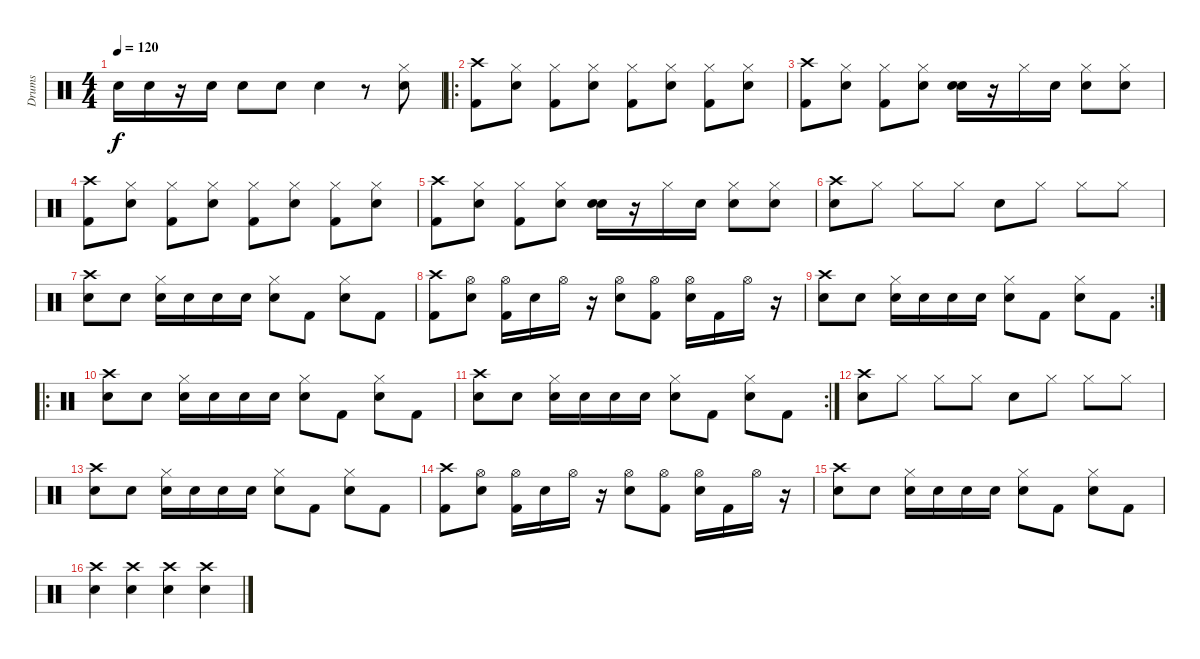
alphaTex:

\track ("Drums" "Drums") {instrument percussion}
\staff {score}
\articulation defaults
\ts (4 4)
\tempo 120
\clef neutral
\ks c "Electric Snare (hit)".16{dy f} "Electric Snare (hit)".16
r.16 "Electric Snare (hit)".16 "Electric Snare (hit)".8 "Electric Snare (hit)".8 "Electric Snare (hit)".4 r.8 ("Electric Snare (hit)" "Hi-Hat (closed)").8 |
\ro
("Crash high (hit)" "Kick (hit) 2").8 ("Hi-Hat (closed)" "Electric Snare (hit)").8 ("Hi-Hat (closed)" "Kick (hit) 2").8 ("Hi-Hat (closed)" "Electric Snare (hit)").8 ("Hi-Hat (closed)" "Kick (hit) 2").8 ("Hi-Hat (closed)" "Electric Snare (hit)").8 ("Hi-Hat (closed)" "Kick (hit) 2").8 ("Hi-Hat (closed)" "Electric Snare (hit)").8 |
("Crash high (hit)" "Kick (hit) 2").8 ("Hi-Hat (closed)" "Electric Snare (hit)").8 ("Hi-Hat (closed)" "Kick (hit) 2").8 ("Hi-Hat (closed)" "Electric Snare (hit)").8 ("Electric Snare (hit)" "Electric Snare (hit)").16 r.16 "Hi-Hat (closed)".16 "Electric Snare (hit)".16 ("Hi-Hat (closed)" "Electric Snare (hit)").8 ("Hi-Hat (closed)" "Electric Snare (hit)").8 |
("Crash high (hit)" "Kick (hit) 2").8 ("Hi-Hat (closed)" "Electric Snare (hit)").8 ("Hi-Hat (closed)" "Kick (hit) 2").8 ("Hi-Hat (closed)" "Electric Snare (hit)").8 ("Hi-Hat (closed)" "Kick (hit) 2").8 ("Hi-Hat (closed)" "Electric Snare (hit)").8 ("Hi-Hat (closed)" "Kick (hit) 2").8 ("Hi-Hat (closed)" "Electric Snare (hit)").8 |
("Crash high (hit)" "Kick (hit) 2").8 ("Hi-Hat (closed)" "Electric Snare (hit)").8 ("Hi-Hat (closed)" "Kick (hit) 2").8 ("Hi-Hat (closed)" "Electric Snare (hit)").8 ("Electric Snare (hit)" "Electric Snare (hit)").16 r.16 "Hi-Hat (closed)".16 "Electric Snare (hit)".16 ("Hi-Hat (closed)" "Electric Snare (hit)").8 ("Hi-Hat (closed)" "Electric Snare (hit)").8 |
("Crash high (hit)" "Electric Snare (hit)").8 "Hi-Hat (closed)".8 "Hi-Hat (closed)".8 "Hi-Hat (closed)".8 "Electric Snare (hit)".8 "Hi-Hat (closed)".8 "Hi-Hat (closed)".8 "Hi-Hat (closed)".8 |
("Crash high (hit)" "Electric Snare (hit)").8 "Electric Snare (hit)".8 ("Hi-Hat (closed)" "Electric Snare (hit)").16 "Electric Snare (hit)".16 "Electric Snare (hit)".16 "Electric Snare (hit)".16 ("Hi-Hat (closed)" "Electric Snare (hit)").8 "Kick (hit) 2".8 ("Hi-Hat (closed)" "Electric Snare (hit)").8 "Kick (hit) 2".8 |
("Crash high (hit)" "Kick (hit) 2").8 ("Hi-Hat (open)" "Electric Snare (hit)").8 ("Hi-Hat (open)" "Kick (hit) 2").16 "Electric Snare (hit)".16 "Hi-Hat (open)".16 r.16 ("Hi-Hat (open)" "Electric Snare (hit)").8 ("Hi-Hat (open)" "Kick (hit) 2").8 ("Hi-Hat (open)" "Electric Snare (hit)").16 "Kick (hit) 2".16 "Hi-Hat (open)".16 r.16 |
\rc 2
("Crash high (hit)" "Electric Snare (hit)").8 "Electric Snare (hit)".8 ("Hi-Hat (closed)" "Electric Snare (hit)").16 "Electric Snare (hit)".16 "Electric Snare (hit)".16 "Electric Snare (hit)".16 ("Hi-Hat (closed)" "Electric Snare (hit)").8 "Kick (hit) 2".8 ("Hi-Hat (closed)" "Electric Snare (hit)").8 "Kick (hit) 2".8 |
\ro
("Crash high (hit)" "Electric Snare (hit)").8 "Electric Snare (hit)".8 ("Hi-Hat (closed)" "Electric Snare (hit)").16 "Electric Snare (hit)".16 "Electric Snare (hit)".16 "Electric Snare (hit)".16 ("Hi-Hat (closed)" "Electric Snare (hit)").8 "Kick (hit) 2".8 ("Hi-Hat (closed)" "Electric Snare (hit)").8 "Kick (hit) 2".8 |
\rc 2
("Crash high (hit)" "Electric Snare (hit)").8 "Electric Snare (hit)".8 ("Hi-Hat (closed)" "Electric Snare (hit)").16 "Electric Snare (hit)".16 "Electric Snare (hit)".16 "Electric Snare (hit)".16 ("Hi-Hat (closed)" "Electric Snare (hit)").8 "Kick (hit) 2".8 ("Hi-Hat (closed)" "Electric Snare (hit)").8 "Kick (hit) 2".8 |
("Crash high (hit)" "Electric Snare (hit)").8 "Hi-Hat (closed)".8 "Hi-Hat (closed)".8 "Hi-Hat (closed)".8 "Electric Snare (hit)".8 "Hi-Hat (closed)".8 "Hi-Hat (closed)".8 "Hi-Hat (closed)".8 |
("Crash high (hit)" "Electric Snare (hit)").8 "Electric Snare (hit)".8 ("Hi-Hat (closed)" "Electric Snare (hit)").16 "Electric Snare (hit)".16 "Electric Snare (hit)".16 "Electric Snare (hit)".16 ("Hi-Hat (closed)" "Electric Snare (hit)").8 "Kick (hit) 2".8 ("Hi-Hat (closed)" "Electric Snare (hit)").8 "Kick (hit) 2".8 |
("Crash high (hit)" "Kick (hit) 2").8 ("Hi-Hat (open)" "Electric Snare (hit)").8 ("Hi-Hat (open)" "Kick (hit) 2").16 "Electric Snare (hit)".16 "Hi-Hat (open)".16 r.16 ("Hi-Hat (open)" "Electric Snare (hit)").8 ("Hi-Hat (open)" "Kick (hit) 2").8 ("Hi-Hat (open)" "Electric Snare (hit)").16 "Kick (hit) 2".16 "Hi-Hat (open)".16 r.16 |
("Crash high (hit)" "Electric Snare (hit)").8 "Electric Snare (hit)".8 ("Hi-Hat (closed)" "Electric Snare (hit)").16 "Electric Snare (hit)".16 "Electric Snare (hit)".16 "Electric Snare (hit)".16 ("Hi-Hat (closed)" "Electric Snare (hit)").8 "Kick (hit) 2".8 ("Hi-Hat (closed)" "Electric Snare (hit)").8 "Kick (hit) 2".8 |
("Crash high (hit)" "Electric Snare (hit)").4 ("Crash high (hit)" "Electric Snare (hit)").4 ("Crash high (hit)" "Electric Snare (hit)").4 ("Crash high (hit)" "Electric Snare (hit)").4
